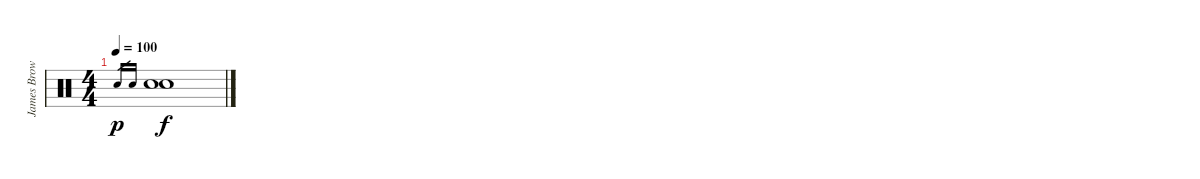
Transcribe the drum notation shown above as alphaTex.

\track ("James Brown" "James Brow") {instrument percussion}
\staff {score}
\articulation defaults
\ts (4 4)
\tempo 100
\clef neutral
\ks c "Snare (hit) 2".16{gr dy p} "Snare (hit) 2".16{gr}
("Snare (hit) 2" "Snare (hit) 2").1{dy f}
